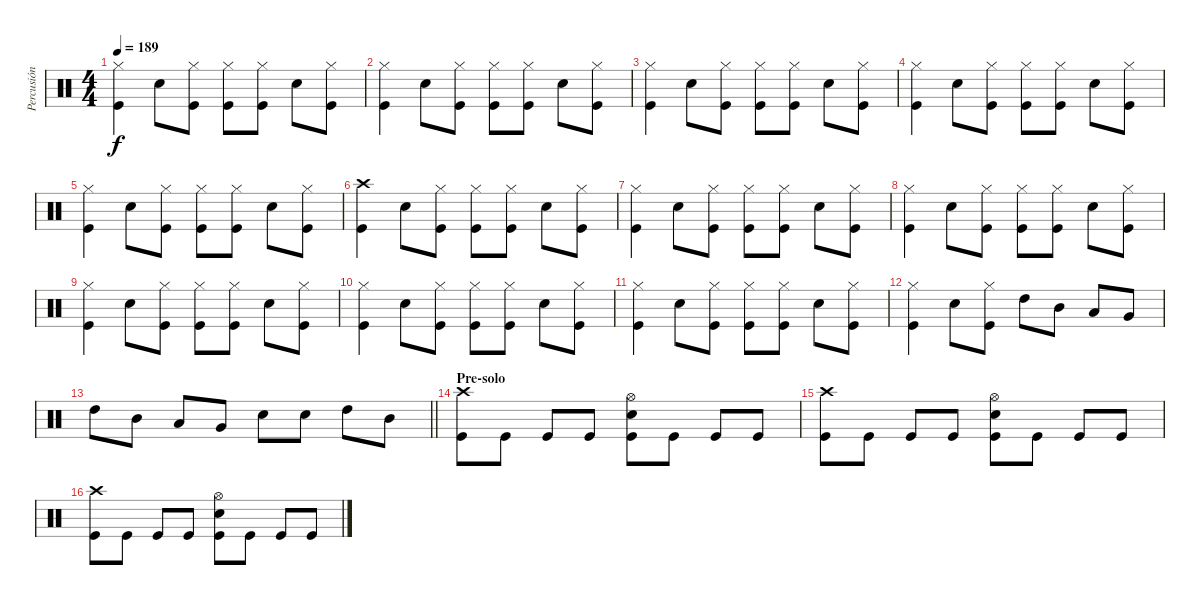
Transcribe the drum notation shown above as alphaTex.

\track ("Percusión" "Percusión") {instrument percussion}
\staff {score}
\articulation defaults
\ts (4 4)
\tempo 189
\clef neutral
\ks c
("Hi-Hat (closed)" "Kick (hit)").4{dy f} "Electric Snare (hit)".8 ("Hi-Hat (closed)" "Kick (hit)").8 ("Hi-Hat (closed)" "Kick (hit)").8 ("Hi-Hat (closed)" "Kick (hit)").8 "Electric Snare (hit)".8 ("Hi-Hat (closed)" "Kick (hit)").8 |
("Hi-Hat (closed)" "Kick (hit)").4 "Electric Snare (hit)".8 ("Hi-Hat (closed)" "Kick (hit)").8 ("Hi-Hat (closed)" "Kick (hit)").8 ("Hi-Hat (closed)" "Kick (hit)").8 "Electric Snare (hit)".8 ("Hi-Hat (closed)" "Kick (hit)").8 |
("Hi-Hat (closed)" "Kick (hit)").4 "Electric Snare (hit)".8 ("Hi-Hat (closed)" "Kick (hit)").8 ("Hi-Hat (closed)" "Kick (hit)").8 ("Hi-Hat (closed)" "Kick (hit)").8 "Electric Snare (hit)".8 ("Hi-Hat (closed)" "Kick (hit)").8 |
("Hi-Hat (closed)" "Kick (hit)").4 "Electric Snare (hit)".8 ("Hi-Hat (closed)" "Kick (hit)").8 ("Hi-Hat (closed)" "Kick (hit)").8 ("Hi-Hat (closed)" "Kick (hit)").8 "Electric Snare (hit)".8 ("Hi-Hat (closed)" "Kick (hit)").8 |
("Hi-Hat (closed)" "Kick (hit)").4 "Electric Snare (hit)".8 ("Hi-Hat (closed)" "Kick (hit)").8 ("Hi-Hat (closed)" "Kick (hit)").8 ("Hi-Hat (closed)" "Kick (hit)").8 "Electric Snare (hit)".8 ("Hi-Hat (closed)" "Kick (hit)").8 |
("Crash high (hit)" "Kick (hit)").4 "Electric Snare (hit)".8 ("Hi-Hat (closed)" "Kick (hit)").8 ("Hi-Hat (closed)" "Kick (hit)").8 ("Hi-Hat (closed)" "Kick (hit)").8 "Electric Snare (hit)".8 ("Hi-Hat (closed)" "Kick (hit)").8 |
("Hi-Hat (closed)" "Kick (hit)").4 "Electric Snare (hit)".8 ("Hi-Hat (closed)" "Kick (hit)").8 ("Hi-Hat (closed)" "Kick (hit)").8 ("Hi-Hat (closed)" "Kick (hit)").8 "Electric Snare (hit)".8 ("Hi-Hat (closed)" "Kick (hit)").8 |
("Hi-Hat (closed)" "Kick (hit)").4 "Electric Snare (hit)".8 ("Hi-Hat (closed)" "Kick (hit)").8 ("Hi-Hat (closed)" "Kick (hit)").8 ("Hi-Hat (closed)" "Kick (hit)").8 "Electric Snare (hit)".8 ("Hi-Hat (closed)" "Kick (hit)").8 |
("Hi-Hat (closed)" "Kick (hit)").4 "Electric Snare (hit)".8 ("Hi-Hat (closed)" "Kick (hit)").8 ("Hi-Hat (closed)" "Kick (hit)").8 ("Hi-Hat (closed)" "Kick (hit)").8 "Electric Snare (hit)".8 ("Hi-Hat (closed)" "Kick (hit)").8 |
("Hi-Hat (closed)" "Kick (hit)").4 "Electric Snare (hit)".8 ("Hi-Hat (closed)" "Kick (hit)").8 ("Hi-Hat (closed)" "Kick (hit)").8 ("Hi-Hat (closed)" "Kick (hit)").8 "Electric Snare (hit)".8 ("Hi-Hat (closed)" "Kick (hit)").8 |
("Hi-Hat (closed)" "Kick (hit)").4 "Electric Snare (hit)".8 ("Hi-Hat (closed)" "Kick (hit)").8 ("Hi-Hat (closed)" "Kick (hit)").8 ("Hi-Hat (closed)" "Kick (hit)").8 "Electric Snare (hit)".8 ("Hi-Hat (closed)" "Kick (hit)").8 |
("Hi-Hat (closed)" "Kick (hit)").4 "Electric Snare (hit)".8 ("Hi-Hat (closed)" "Kick (hit)").8 "High Tom (hit)".8 "Mid Tom (hit)".8 "Low Tom (hit)".8 "Very Low Tom (hit)".8 |
\barLineRight lightlight "High Tom (hit)".8 "Mid Tom (hit)".8 "Low Tom (hit)".8 "Very Low Tom (hit)".8 "Electric Snare (hit)".8 "Electric Snare (hit)".8 "High Tom (hit)".8 "Mid Tom (hit)".8
|
\section ("" "Pre-solo")
("Crash high (hit)" "Kick (hit)").8 "Kick (hit)".8 "Kick (hit)".8 "Kick (hit)".8 ("Hi-Hat (open)" "Electric Snare (hit)" "Kick (hit)").8 "Kick (hit)".8 "Kick (hit)".8 "Kick (hit)".8 |
("Crash high (hit)" "Kick (hit)").8 "Kick (hit)".8 "Kick (hit)".8 "Kick (hit)".8 ("Hi-Hat (open)" "Electric Snare (hit)" "Kick (hit)").8 "Kick (hit)".8 "Kick (hit)".8 "Kick (hit)".8 |
("Crash high (hit)" "Kick (hit)").8 "Kick (hit)".8 "Kick (hit)".8 "Kick (hit)".8 ("Hi-Hat (open)" "Electric Snare (hit)" "Kick (hit)").8 "Kick (hit)".8 "Kick (hit)".8 "Kick (hit)".8
